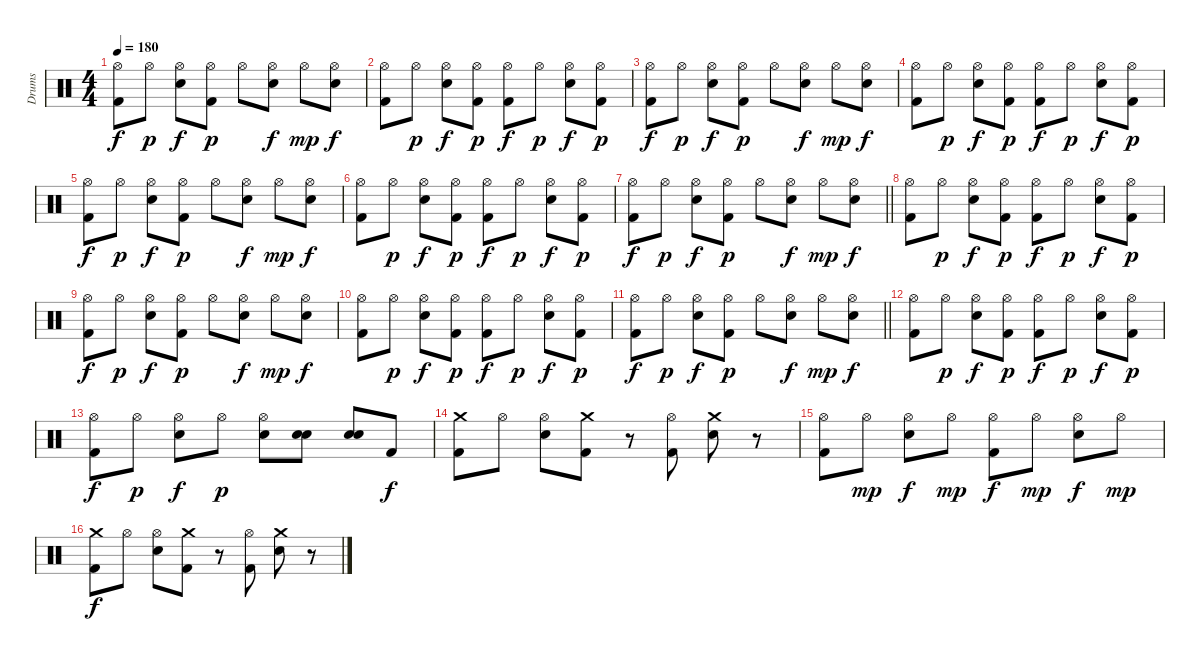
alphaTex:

\track ("Drums" "Drums") {instrument percussion}
\staff {score}
\articulation defaults
\ts (4 4)
\tempo 180
\clef neutral
\ks c
("Hi-Hat (open)" "Kick (hit) 2").8{dy f} "Hi-Hat (open)".8{dy p} ("Hi-Hat (open)" "Electric Snare (hit)").8{dy f} ("Hi-Hat (open)" "Kick (hit) 2").8{dy p} "Hi-Hat (open)".8 ("Hi-Hat (open)" "Electric Snare (hit)").8{dy f} "Hi-Hat (open)".8{dy mp} ("Hi-Hat (open)" "Electric Snare (hit)").8{dy f} |
("Hi-Hat (open)" "Kick (hit) 2").8 "Hi-Hat (open)".8{dy p} ("Hi-Hat (open)" "Electric Snare (hit)").8{dy f} ("Hi-Hat (open)" "Kick (hit) 2").8{dy p} ("Hi-Hat (open)" "Kick (hit) 2").8{dy f} "Hi-Hat (open)".8{dy p} ("Hi-Hat (open)" "Electric Snare (hit)").8{dy f} ("Hi-Hat (open)" "Kick (hit) 2").8{dy p} |
("Hi-Hat (open)" "Kick (hit) 2").8{dy f} "Hi-Hat (open)".8{dy p} ("Hi-Hat (open)" "Electric Snare (hit)").8{dy f} ("Hi-Hat (open)" "Kick (hit) 2").8{dy p} "Hi-Hat (open)".8 ("Hi-Hat (open)" "Electric Snare (hit)").8{dy f} "Hi-Hat (open)".8{dy mp} ("Hi-Hat (open)" "Electric Snare (hit)").8{dy f} |
("Hi-Hat (open)" "Kick (hit) 2").8 "Hi-Hat (open)".8{dy p} ("Hi-Hat (open)" "Electric Snare (hit)").8{dy f} ("Hi-Hat (open)" "Kick (hit) 2").8{dy p} ("Hi-Hat (open)" "Kick (hit) 2").8{dy f} "Hi-Hat (open)".8{dy p} ("Hi-Hat (open)" "Electric Snare (hit)").8{dy f} ("Hi-Hat (open)" "Kick (hit) 2").8{dy p} |
("Hi-Hat (open)" "Kick (hit) 2").8{dy f} "Hi-Hat (open)".8{dy p} ("Hi-Hat (open)" "Electric Snare (hit)").8{dy f} ("Hi-Hat (open)" "Kick (hit) 2").8{dy p} "Hi-Hat (open)".8 ("Hi-Hat (open)" "Electric Snare (hit)").8{dy f} "Hi-Hat (open)".8{dy mp} ("Hi-Hat (open)" "Electric Snare (hit)").8{dy f} |
("Hi-Hat (open)" "Kick (hit) 2").8 "Hi-Hat (open)".8{dy p} ("Hi-Hat (open)" "Electric Snare (hit)").8{dy f} ("Hi-Hat (open)" "Kick (hit) 2").8{dy p} ("Hi-Hat (open)" "Kick (hit) 2").8{dy f} "Hi-Hat (open)".8{dy p} ("Hi-Hat (open)" "Electric Snare (hit)").8{dy f} ("Hi-Hat (open)" "Kick (hit) 2").8{dy p} |
\barLineRight lightlight
("Hi-Hat (open)" "Kick (hit) 2").8{dy f} "Hi-Hat (open)".8{dy p} ("Hi-Hat (open)" "Electric Snare (hit)").8{dy f} ("Hi-Hat (open)" "Kick (hit) 2").8{dy p} "Hi-Hat (open)".8 ("Hi-Hat (open)" "Electric Snare (hit)").8{dy f} "Hi-Hat (open)".8{dy mp} ("Hi-Hat (open)" "Electric Snare (hit)").8{dy f} |
("Hi-Hat (open)" "Kick (hit) 2").8 "Hi-Hat (open)".8{dy p} ("Hi-Hat (open)" "Electric Snare (hit)").8{dy f} ("Hi-Hat (open)" "Kick (hit) 2").8{dy p} ("Hi-Hat (open)" "Kick (hit) 2").8{dy f} "Hi-Hat (open)".8{dy p} ("Hi-Hat (open)" "Electric Snare (hit)").8{dy f} ("Hi-Hat (open)" "Kick (hit) 2").8{dy p} |
("Hi-Hat (open)" "Kick (hit) 2").8{dy f} "Hi-Hat (open)".8{dy p} ("Hi-Hat (open)" "Electric Snare (hit)").8{dy f} ("Hi-Hat (open)" "Kick (hit) 2").8{dy p} "Hi-Hat (open)".8 ("Hi-Hat (open)" "Electric Snare (hit)").8{dy f} "Hi-Hat (open)".8{dy mp} ("Hi-Hat (open)" "Electric Snare (hit)").8{dy f} |
("Hi-Hat (open)" "Kick (hit) 2").8 "Hi-Hat (open)".8{dy p} ("Hi-Hat (open)" "Electric Snare (hit)").8{dy f} ("Hi-Hat (open)" "Kick (hit) 2").8{dy p} ("Hi-Hat (open)" "Kick (hit) 2").8{dy f} "Hi-Hat (open)".8{dy p} ("Hi-Hat (open)" "Electric Snare (hit)").8{dy f} ("Hi-Hat (open)" "Kick (hit) 2").8{dy p} |
\barLineRight lightlight
("Hi-Hat (open)" "Kick (hit) 2").8{dy f} "Hi-Hat (open)".8{dy p} ("Hi-Hat (open)" "Electric Snare (hit)").8{dy f} ("Hi-Hat (open)" "Kick (hit) 2").8{dy p} "Hi-Hat (open)".8 ("Hi-Hat (open)" "Electric Snare (hit)").8{dy f} "Hi-Hat (open)".8{dy mp} ("Hi-Hat (open)" "Electric Snare (hit)").8{dy f} |
("Hi-Hat (open)" "Kick (hit) 2").8 "Hi-Hat (open)".8{dy p} ("Hi-Hat (open)" "Electric Snare (hit)").8{dy f} ("Hi-Hat (open)" "Kick (hit) 2").8{dy p} ("Hi-Hat (open)" "Kick (hit) 2").8{dy f} "Hi-Hat (open)".8{dy p} ("Hi-Hat (open)" "Electric Snare (hit)").8{dy f} ("Hi-Hat (open)" "Kick (hit) 2").8{dy p} |
("Hi-Hat (open)" "Kick (hit) 2").8{dy f} "Hi-Hat (open)".8{dy p} ("Hi-Hat (open)" "Electric Snare (hit)").8{dy f} "Hi-Hat (open)".8{dy p} ("Electric Snare (hit)" "Hi-Hat (open)").8 ("Electric Snare (hit)" "Electric Snare (hit)").8 ("Electric Snare (hit)" "Electric Snare (hit)").8 "Kick (hit) 2".8{dy f} |
("Crash medium (hit)" "Kick (hit) 2").8 "Hi-Hat (open)".8 ("Hi-Hat (open)" "Electric Snare (hit)").8 ("Kick (hit) 2" "Crash medium (hit)").8 r.8 ("Hi-Hat (open)" "Kick (hit) 2").8 ("Crash medium (hit)" "Electric Snare (hit)").8 r.8 |
("Hi-Hat (open)" "Kick (hit) 2").8 "Hi-Hat (open)".8{dy mp} ("Hi-Hat (open)" "Electric Snare (hit)").8{dy f} "Hi-Hat (open)".8{dy mp} ("Hi-Hat (open)" "Kick (hit) 2").8{dy f} "Hi-Hat (open)".8{dy mp} ("Hi-Hat (open)" "Electric Snare (hit)").8{dy f} "Hi-Hat (open)".8{dy mp} |
("Crash medium (hit)" "Kick (hit) 2").8{dy f} "Hi-Hat (open)".8 ("Hi-Hat (open)" "Electric Snare (hit)").8 ("Kick (hit) 2" "Crash medium (hit)").8 r.8 ("Hi-Hat (open)" "Kick (hit) 2").8 ("Electric Snare (hit)" "Crash medium (hit)").8 r.8
